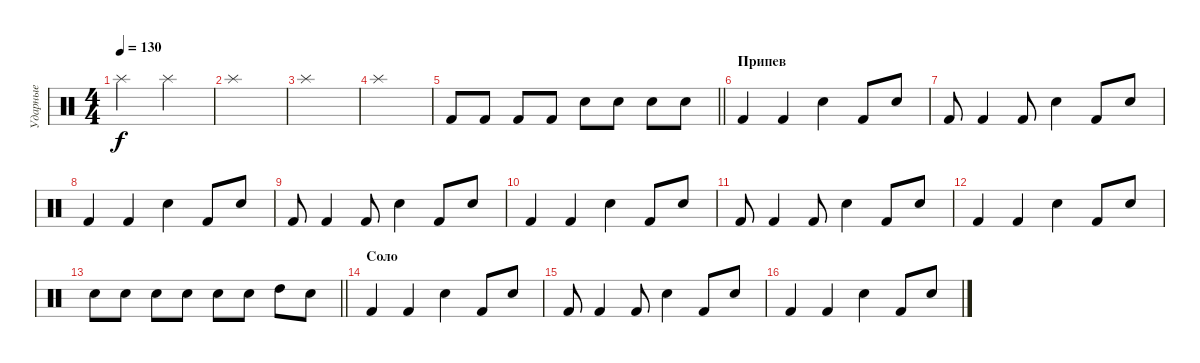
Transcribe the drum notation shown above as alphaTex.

\track ("Ударные" "Ударные") {instrument percussion}
\staff {score}
\articulation defaults
\ts (4 4)
\tempo 130
\clef neutral
\ks c "Splash (hit)".2{dy f} "Splash (hit)".2
|
"Splash (hit)".1 |
"Splash (hit)".1 |
"Splash (hit)".1 |
\barLineRight lightlight "Kick (hit) 2".8 "Kick (hit) 2".8 "Kick (hit) 2".8 "Kick (hit) 2".8 "Snare (hit) 2".8 "Snare (hit) 2".8 "Snare (hit) 2".8 "Snare (hit) 2".8
|
\section ("" "Припев")
"Kick (hit) 2".4 "Kick (hit) 2".4 "Snare (hit) 2".4 "Kick (hit) 2".8 "Snare (hit) 2".8 |
"Kick (hit) 2".8 "Kick (hit) 2".4 "Kick (hit) 2".8 "Snare (hit) 2".4 "Kick (hit) 2".8 "Snare (hit) 2".8 |
"Kick (hit) 2".4 "Kick (hit) 2".4 "Snare (hit) 2".4 "Kick (hit) 2".8 "Snare (hit) 2".8 |
"Kick (hit) 2".8 "Kick (hit) 2".4 "Kick (hit) 2".8 "Snare (hit) 2".4 "Kick (hit) 2".8 "Snare (hit) 2".8 |
"Kick (hit) 2".4 "Kick (hit) 2".4 "Snare (hit) 2".4 "Kick (hit) 2".8 "Snare (hit) 2".8 |
"Kick (hit) 2".8 "Kick (hit) 2".4 "Kick (hit) 2".8 "Snare (hit) 2".4 "Kick (hit) 2".8 "Snare (hit) 2".8 |
"Kick (hit) 2".4 "Kick (hit) 2".4 "Snare (hit) 2".4 "Kick (hit) 2".8 "Snare (hit) 2".8 |
\barLineRight lightlight "Snare (hit) 2".8 "Snare (hit) 2".8 "Snare (hit) 2".8 "Snare (hit) 2".8 "Snare (hit) 2".8 "Snare (hit) 2".8 "High Tom (hit)".8 "Snare (hit) 2".8
|
\section ("" "Соло")
"Kick (hit) 2".4 "Kick (hit) 2".4 "Snare (hit) 2".4 "Kick (hit) 2".8 "Snare (hit) 2".8 |
"Kick (hit) 2".8 "Kick (hit) 2".4 "Kick (hit) 2".8 "Snare (hit) 2".4 "Kick (hit) 2".8 "Snare (hit) 2".8 |
"Kick (hit) 2".4 "Kick (hit) 2".4 "Snare (hit) 2".4 "Kick (hit) 2".8 "Snare (hit) 2".8
